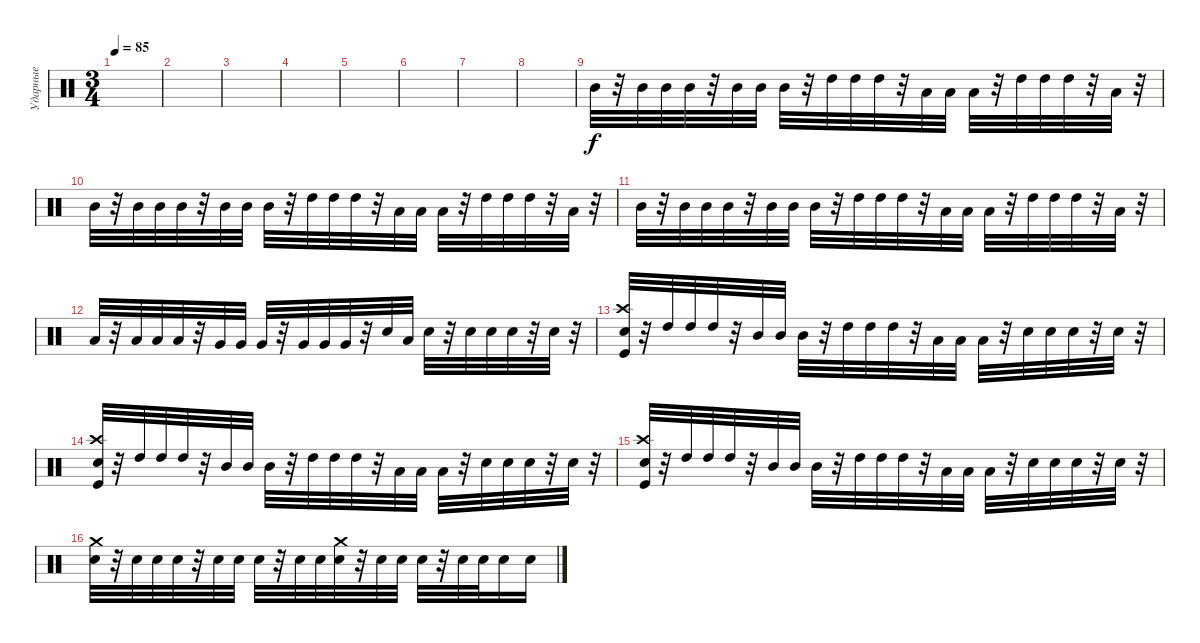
\track ("Ударные" "Ударные") {instrument percussion}
\staff {score}
\articulation defaults
\ts (3 4)
\tempo 85
\clef neutral
\ks c
|
|
|
|
|
|
|
|
"Mid Tom (hit)".32 r.32 "Mid Tom (hit)".32 "Mid Tom (hit)".32 "Mid Tom (hit)".32 r.32 "Mid Tom (hit)".32 "Mid Tom (hit)".32 "Mid Tom (hit)".32 r.32 "High Tom (hit)".32 "High Tom (hit)".32 "High Tom (hit)".32 r.32 "Low Tom (hit)".32 "Low Tom (hit)".32 "Low Tom (hit)".32 r.32 "High Tom (hit)".32 "High Tom (hit)".32 "High Tom (hit)".32 r.32 "Low Tom (hit)".32 r.32 |
"Mid Tom (hit)".32 r.32 "Mid Tom (hit)".32 "Mid Tom (hit)".32 "Mid Tom (hit)".32 r.32 "Mid Tom (hit)".32 "Mid Tom (hit)".32 "Mid Tom (hit)".32 r.32 "High Tom (hit)".32 "High Tom (hit)".32 "High Tom (hit)".32 r.32 "Low Tom (hit)".32 "Low Tom (hit)".32 "Low Tom (hit)".32 r.32 "High Tom (hit)".32 "High Tom (hit)".32 "High Tom (hit)".32 r.32 "Low Tom (hit)".32 r.32 |
"Mid Tom (hit)".32 r.32 "Mid Tom (hit)".32 "Mid Tom (hit)".32 "Mid Tom (hit)".32 r.32 "Mid Tom (hit)".32 "Mid Tom (hit)".32 "Mid Tom (hit)".32 r.32 "High Tom (hit)".32 "High Tom (hit)".32 "High Tom (hit)".32 r.32 "Low Tom (hit)".32 "Low Tom (hit)".32 "Low Tom (hit)".32 r.32 "High Tom (hit)".32 "High Tom (hit)".32 "High Tom (hit)".32 r.32 "Low Tom (hit)".32 r.32 |
"Low Tom (hit)".32 r.32 "Low Tom (hit)".32 "Low Tom (hit)".32 "Low Tom (hit)".32 r.32 "Very Low Tom (hit)".32 "Very Low Tom (hit)".32 "Very Low Tom (hit)".32 r.32 "Very Low Tom (hit)".32 "Very Low Tom (hit)".32 "Very Low Tom (hit)".32 r.32 "Electric Snare (hit)".32 "Low Tom (hit)".32 "Electric Snare (hit)".32 r.32 "Electric Snare (hit)".32 "Electric Snare (hit)".32 "Electric Snare (hit)".32 r.32 "Electric Snare (hit)".32 r.32 |
("Crash high (hit)" "Electric Snare (hit)" "Kick (hit)").32 r.32 "High Tom (hit)".32 "High Tom (hit)".32 "High Tom (hit)".32 r.32 "Mid Tom (hit)".32 "Mid Tom (hit)".32 "Mid Tom (hit)".32 r.32 "High Tom (hit)".32 "High Tom (hit)".32 "High Tom (hit)".32 r.32 "Low Tom (hit)".32 "Low Tom (hit)".32 "Low Tom (hit)".32 r.32 "Electric Snare (hit)".32 "Electric Snare (hit)".32 "Electric Snare (hit)".32 r.32 "Electric Snare (hit)".32 r.32 |
("Crash high (hit)" "Electric Snare (hit)" "Kick (hit)").32 r.32 "High Tom (hit)".32 "High Tom (hit)".32 "High Tom (hit)".32 r.32 "Mid Tom (hit)".32 "Mid Tom (hit)".32 "Mid Tom (hit)".32 r.32 "High Tom (hit)".32 "High Tom (hit)".32 "High Tom (hit)".32 r.32 "Low Tom (hit)".32 "Low Tom (hit)".32 "Low Tom (hit)".32 r.32 "Electric Snare (hit)".32 "Electric Snare (hit)".32 "Electric Snare (hit)".32 r.32 "Electric Snare (hit)".32 r.32 |
("Crash high (hit)" "Electric Snare (hit)" "Kick (hit)").32 r.32 "High Tom (hit)".32 "High Tom (hit)".32 "High Tom (hit)".32 r.32 "Mid Tom (hit)".32 "Mid Tom (hit)".32 "Mid Tom (hit)".32 r.32 "High Tom (hit)".32 "High Tom (hit)".32 "High Tom (hit)".32 r.32 "Low Tom (hit)".32 "Low Tom (hit)".32 "Low Tom (hit)".32 r.32 "Electric Snare (hit)".32 "Electric Snare (hit)".32 "Electric Snare (hit)".32 r.32 "Electric Snare (hit)".32 r.32 |
("Crash medium (hit)" "Electric Snare (hit)").32 r.32 "Electric Snare (hit)".32 "Electric Snare (hit)".32 "Electric Snare (hit)".32 r.32 "Electric Snare (hit)".32 "Electric Snare (hit)".32 "Electric Snare (hit)".32 r.32 "Electric Snare (hit)".32 "Electric Snare (hit)".32 ("Crash medium (hit)" "Electric Snare (hit)").32 r.32 "Electric Snare (hit)".32 "Electric Snare (hit)".32 "Electric Snare (hit)".32 r.32 "Electric Snare (hit)".32 "Electric Snare (hit)".32 "Electric Snare (hit)".16 "Electric Snare (hit)".16
